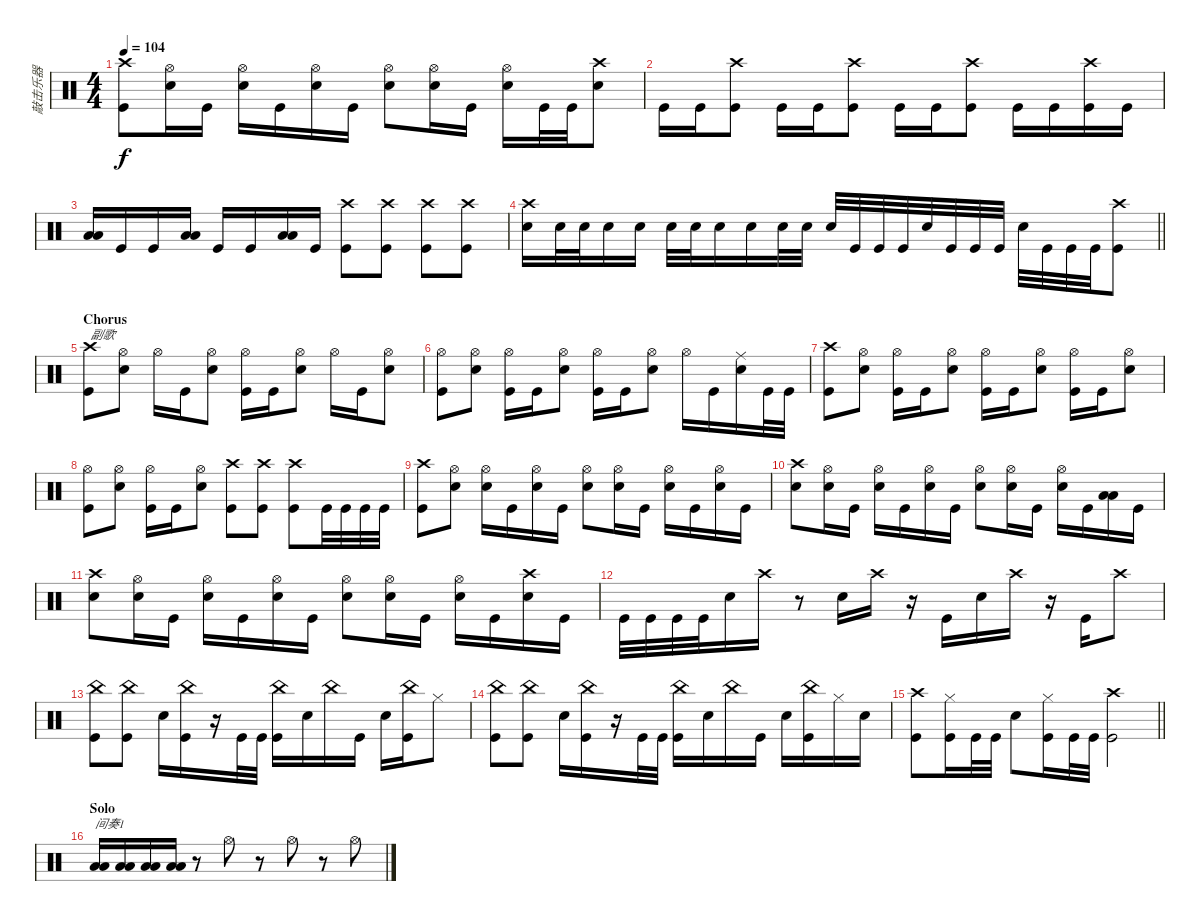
\track ("敲击乐器" "敲击乐器") {instrument percussion}
\staff {score}
\articulation defaults
\ts (4 4)
\tempo 104
\clef neutral
\ks c
("Crash high (hit)" "Kick (hit)").8{dy f} ("Snare (hit) 2" "Hi-Hat (open)").16 "Kick (hit)".16 ("Snare (hit) 2" "Hi-Hat (open)").16 "Kick (hit)".16 ("Snare (hit) 2" "Hi-Hat (open)").16 "Kick (hit)".16 ("Hi-Hat (open)" "Snare (hit) 2").8 ("Snare (hit) 2" "Hi-Hat (open)").16 "Kick (hit)".16 ("Snare (hit) 2" "Hi-Hat (open)").16 "Kick (hit)".32 "Kick (hit)".32 ("Snare (hit) 2" "Crash high (hit)").8 |
"Kick (hit)".16 "Kick (hit)".16 ("Kick (hit)" "Crash high (hit)").8 "Kick (hit)".16 "Kick (hit)".16 ("Kick (hit)" "Crash high (hit)").8 "Kick (hit)".16 "Kick (hit)".16 ("Kick (hit)" "Crash high (hit)").8 "Kick (hit)".16 "Kick (hit)".16 ("Kick (hit)" "Crash high (hit)").16 "Kick (hit)".16 |
("Low Tom (hit)" "Low Floor Tom (hit)").16 "Kick (hit)".16 "Kick (hit)".16 ("Low Tom (hit)" "Low Floor Tom (hit)").16 "Kick (hit)".16 "Kick (hit)".16 ("Low Tom (hit)" "Low Floor Tom (hit)").16 "Kick (hit)".16 ("Crash high (hit)" "Kick (hit)").8 ("Crash high (hit)" "Kick (hit)").8 ("Crash high (hit)" "Kick (hit)").8 ("Crash high (hit)" "Kick (hit)").8 |
\barLineRight lightlight
("Crash high (hit)" "Snare (hit) 2").16 "Snare (hit) 2".32 "Snare (hit) 2".32 "Snare (hit) 2".16 "Snare (hit) 2".16 "Snare (hit) 2".32 "Snare (hit) 2".32 "Snare (hit) 2".16 "Snare (hit) 2".16 "Snare (hit) 2".32 "Snare (hit) 2".32 "Snare (hit) 2".32 "Kick (hit)".32 "Kick (hit)".32 "Kick (hit)".32 "Snare (hit) 2".32 "Kick (hit)".32 "Kick (hit)".32 "Kick (hit)".32 "Snare (hit) 2".32 "Kick (hit)".32 "Kick (hit)".32 "Kick (hit)".32 ("Kick (hit)" "Crash high (hit)").8 |
\section ("" "Chorus")
("Crash high (hit)" "Kick (hit)").8{txt "副歌"} ("Snare (hit) 2" "Hi-Hat (open)").8 "Hi-Hat (open)".16 "Kick (hit)".16 ("Snare (hit) 2" "Hi-Hat (open)").8 ("Kick (hit)" "Hi-Hat (open)").16 "Kick (hit)".16 ("Snare (hit) 2" "Hi-Hat (open)").8 "Hi-Hat (open)".16 "Kick (hit)".16 ("Snare (hit) 2" "Hi-Hat (open)").8 |
("Kick (hit)" "Hi-Hat (open)").8 ("Snare (hit) 2" "Hi-Hat (open)").8 ("Hi-Hat (open)" "Kick (hit)").16 "Kick (hit)".16 ("Snare (hit) 2" "Hi-Hat (open)").8 ("Kick (hit)" "Hi-Hat (open)").16 "Kick (hit)".16 ("Snare (hit) 2" "Hi-Hat (open)").8 "Hi-Hat (open)".16 "Kick (hit)".16 ("Snare (hit) 2" "Ride (middle)").16 "Kick (hit)".32 "Kick (hit)".32 |
("Crash high (hit)" "Kick (hit)").8 ("Snare (hit) 2" "Hi-Hat (open)").8 ("Hi-Hat (open)" "Kick (hit)").16 "Kick (hit)".16 ("Snare (hit) 2" "Hi-Hat (open)").8 ("Kick (hit)" "Hi-Hat (open)").16 "Kick (hit)".16 ("Snare (hit) 2" "Hi-Hat (open)").8 ("Hi-Hat (open)" "Kick (hit)").16 "Kick (hit)".16 ("Snare (hit) 2" "Hi-Hat (open)").8 |
("Kick (hit)" "Hi-Hat (open)").8 ("Snare (hit) 2" "Hi-Hat (open)").8 ("Hi-Hat (open)" "Kick (hit)").16 "Kick (hit)".16 ("Snare (hit) 2" "Hi-Hat (open)").8 ("Kick (hit)" "Crash high (hit)").8 ("Kick (hit)" "Crash high (hit)").8 ("Kick (hit)" "Crash high (hit)").8 "Kick (hit)".32 "Kick (hit)".32 "Kick (hit)".32 "Kick (hit)".32 |
("Crash high (hit)" "Kick (hit)").8 ("Snare (hit) 2" "Hi-Hat (open)").8 ("Snare (hit) 2" "Hi-Hat (open)").16 "Kick (hit)".16 ("Snare (hit) 2" "Hi-Hat (open)").16 "Kick (hit)".16 ("Snare (hit) 2" "Hi-Hat (open)").8 ("Snare (hit) 2" "Hi-Hat (open)").16 "Kick (hit)".16 ("Snare (hit) 2" "Hi-Hat (open)").16 "Kick (hit)".16 ("Snare (hit) 2" "Hi-Hat (open)").16 "Kick (hit)".16 |
("Snare (hit) 2" "Crash high (hit)").8 ("Snare (hit) 2" "Hi-Hat (open)").16 "Kick (hit)".16 ("Snare (hit) 2" "Hi-Hat (open)").16 "Kick (hit)".16 ("Snare (hit) 2" "Hi-Hat (open)").16 "Kick (hit)".16 ("Snare (hit) 2" "Hi-Hat (open)").8 ("Snare (hit) 2" "Hi-Hat (open)").16 "Kick (hit)".16 ("Snare (hit) 2" "Hi-Hat (open)").16 "Kick (hit)".16 ("Low Tom (hit)" "Low Floor Tom (hit)").16 "Kick (hit)".16 |
("Snare (hit) 2" "Crash high (hit)").8 ("Snare (hit) 2" "Hi-Hat (open)").16 "Kick (hit)".16 ("Snare (hit) 2" "Hi-Hat (open)").16 "Kick (hit)".16 ("Snare (hit) 2" "Hi-Hat (open)").16 "Kick (hit)".16 ("Snare (hit) 2" "Hi-Hat (open)").8 ("Snare (hit) 2" "Hi-Hat (open)").16 "Kick (hit)".16 ("Snare (hit) 2" "Hi-Hat (open)").16 "Kick (hit)".16 ("Snare (hit) 2" "Crash high (hit)").16 "Kick (hit)".16 |
"Kick (hit)".32 "Kick (hit)".32 "Kick (hit)".32 "Kick (hit)".32 "Snare (hit) 2".16 "Crash high (hit)".16 r.8 "Snare (hit) 2".16 "Crash high (hit)".16 r.16 "Kick (hit)".16 "Snare (hit) 2".16 "Crash high (hit)".16 r.16 "Kick (hit)".16 "Crash high (hit)".8 |
("China (hit)" "Kick (hit)").8 ("Kick (hit)" "China (hit)").8 "Snare (hit) 2".16 ("Kick (hit)" "China (hit)").16 r.16 "Kick (hit)".32 "Kick (hit)".32 ("Kick (hit)" "China (hit)").16 "Snare (hit) 2".16 "China (hit)".16 "Kick (hit)".16 "Snare (hit) 2".16 ("Kick (hit)" "China (hit)").16 "Hi-Hat (closed)".8 |
("China (hit)" "Kick (hit)").8 ("Kick (hit)" "China (hit)").8 "Snare (hit) 2".16 ("Kick (hit)" "China (hit)").16 r.16 "Kick (hit)".32 "Kick (hit)".32 ("Kick (hit)" "China (hit)").16 "Snare (hit) 2".16 "China (hit)".16 "Kick (hit)".16 "Snare (hit) 2".16 ("Kick (hit)" "China (hit)").16 "Hi-Hat (closed)".16 "Snare (hit) 2".16 |
\barLineRight lightlight
("Crash high (hit)" "Kick (hit)").8 ("Hi-Hat (closed)" "Kick (hit)").16 "Kick (hit)".32 "Kick (hit)".32 "Snare (hit) 2".8 ("Kick (hit)" "Hi-Hat (closed)").16 "Kick (hit)".32 "Kick (hit)".32 ("Kick (hit)" "Crash high (hit)").2 |
\section ("" "Solo")
("Low Tom (hit)" "Low Floor Tom (hit)").16{txt "间奏1"} ("Low Tom (hit)" "Low Floor Tom (hit)").16 ("Low Tom (hit)" "Low Floor Tom (hit)").16 ("Low Tom (hit)" "Low Floor Tom (hit)").16 r.8 "Hi-Hat (open)".8 r.8 "Hi-Hat (open)".8 r.8 "Hi-Hat (open)".8
